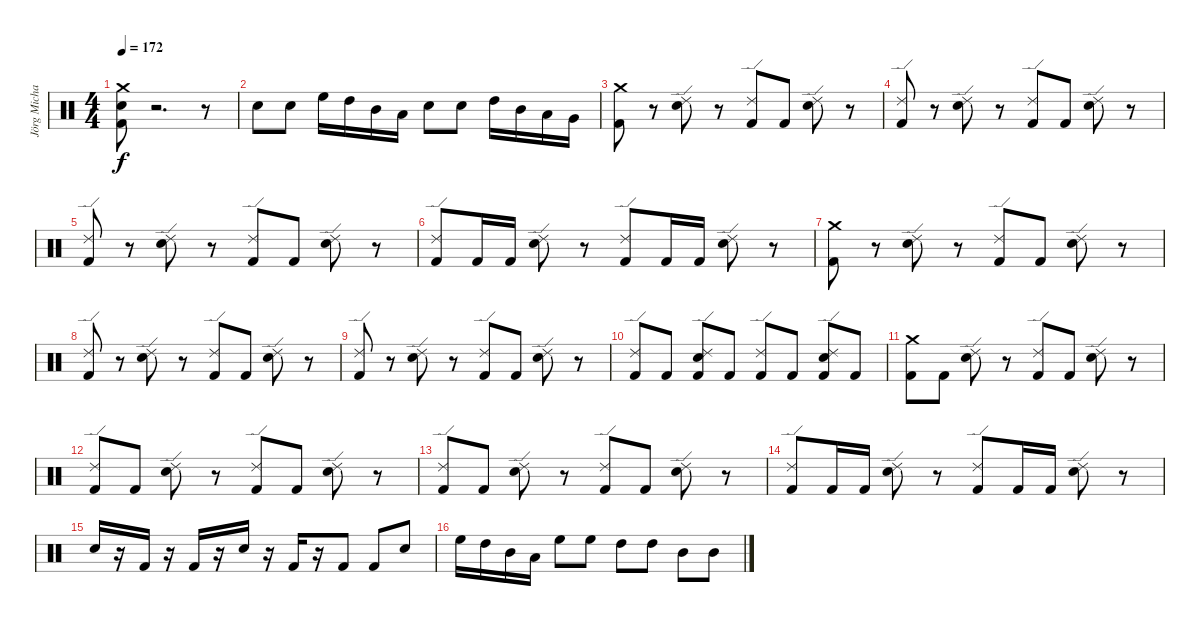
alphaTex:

\track ("Jörg Michael" "Jörg Micha") {instrument percussion}
\staff {score}
\articulation defaults
\ts (4 4)
\tempo 172
\clef neutral
\ks c
("Crash medium (hit)" "Electric Snare (hit)" "Kick (hit) 2").8{dy f} r.2{d} r.8 |
"Electric Snare (hit)".8 "Electric Snare (hit)".8 "High Floor Tom (hit)".16 "High Tom (hit)".16 "Mid Tom (hit)".16 "Low Tom (hit)".16 "Electric Snare (hit)".8 "Electric Snare (hit)".8 "High Tom (hit)".16 "Mid Tom (hit)".16 "Low Tom (hit)".16 "Very Low Tom (hit)".16 |
("Crash medium (hit)" "Kick (hit) 2").8 r.8 ("Ride (edge) 2" "Electric Snare (hit)").8 r.8 ("Ride (edge) 2" "Kick (hit) 2").8 "Kick (hit) 2".8 ("Ride (edge) 2" "Electric Snare (hit)").8 r.8 |
("Ride (edge) 2" "Kick (hit) 2").8 r.8 ("Ride (edge) 2" "Electric Snare (hit)").8 r.8 ("Ride (edge) 2" "Kick (hit) 2").8 "Kick (hit) 2".8 ("Ride (edge) 2" "Electric Snare (hit)").8 r.8 |
("Ride (edge) 2" "Kick (hit) 2").8 r.8 ("Ride (edge) 2" "Electric Snare (hit)").8 r.8 ("Ride (edge) 2" "Kick (hit) 2").8 "Kick (hit) 2".8 ("Ride (edge) 2" "Electric Snare (hit)").8 r.8 |
("Ride (edge) 2" "Kick (hit) 2").8 "Kick (hit) 2".16 "Kick (hit) 2".16 ("Ride (edge) 2" "Electric Snare (hit)").8 r.8 ("Ride (edge) 2" "Kick (hit) 2").8 "Kick (hit) 2".16 "Kick (hit) 2".16 ("Ride (edge) 2" "Electric Snare (hit)").8 r.8 |
("Crash medium (hit)" "Kick (hit) 2").8 r.8 ("Ride (edge) 2" "Electric Snare (hit)").8 r.8 ("Ride (edge) 2" "Kick (hit) 2").8 "Kick (hit) 2".8 ("Ride (edge) 2" "Electric Snare (hit)").8 r.8 |
("Ride (edge) 2" "Kick (hit) 2").8 r.8 ("Ride (edge) 2" "Electric Snare (hit)").8 r.8 ("Ride (edge) 2" "Kick (hit) 2").8 "Kick (hit) 2".8 ("Ride (edge) 2" "Electric Snare (hit)").8 r.8 |
("Ride (edge) 2" "Kick (hit) 2").8 r.8 ("Ride (edge) 2" "Electric Snare (hit)").8 r.8 ("Ride (edge) 2" "Kick (hit) 2").8 "Kick (hit) 2".8 ("Ride (edge) 2" "Electric Snare (hit)").8 r.8 |
("Ride (edge) 2" "Kick (hit) 2").8 "Kick (hit) 2".8 ("Kick (hit) 2" "Ride (edge) 2" "Electric Snare (hit)").8 "Kick (hit) 2".8 ("Kick (hit) 2" "Ride (edge) 2").8 "Kick (hit) 2".8 ("Kick (hit) 2" "Ride (edge) 2" "Electric Snare (hit)").8 "Kick (hit) 2".8 |
("Crash medium (hit)" "Kick (hit) 2").8 "Kick (hit) 2".8 ("Ride (edge) 2" "Electric Snare (hit)").8 r.8 ("Ride (edge) 2" "Kick (hit) 2").8 "Kick (hit) 2".8 ("Ride (edge) 2" "Electric Snare (hit)").8 r.8 |
("Ride (edge) 2" "Kick (hit) 2").8 "Kick (hit) 2".8 ("Ride (edge) 2" "Electric Snare (hit)").8 r.8 ("Ride (edge) 2" "Kick (hit) 2").8 "Kick (hit) 2".8 ("Ride (edge) 2" "Electric Snare (hit)").8 r.8 |
("Ride (edge) 2" "Kick (hit) 2").8 "Kick (hit) 2".8 ("Ride (edge) 2" "Electric Snare (hit)").8 r.8 ("Ride (edge) 2" "Kick (hit) 2").8 "Kick (hit) 2".8 ("Ride (edge) 2" "Electric Snare (hit)").8 r.8 |
("Ride (edge) 2" "Kick (hit) 2").8 "Kick (hit) 2".16 "Kick (hit) 2".16 ("Ride (edge) 2" "Electric Snare (hit)").8 r.8 ("Ride (edge) 2" "Kick (hit) 2").8 "Kick (hit) 2".16 "Kick (hit) 2".16 ("Ride (edge) 2" "Electric Snare (hit)").8 r.8 |
"Electric Snare (hit)".16 r.16 "Kick (hit) 2".16 r.16 "Kick (hit) 2".16 r.16 "Electric Snare (hit)".16 r.16 "Kick (hit) 2".16 r.16 "Kick (hit) 2".8 "Kick (hit) 2".8 "Electric Snare (hit)".8 |
"High Floor Tom (hit)".16 "High Tom (hit)".16 "Mid Tom (hit)".16 "Low Tom (hit)".16 "High Floor Tom (hit)".8 "High Floor Tom (hit)".8 "High Tom (hit)".8 "High Tom (hit)".8 "Mid Tom (hit)".8 "Mid Tom (hit)".8
